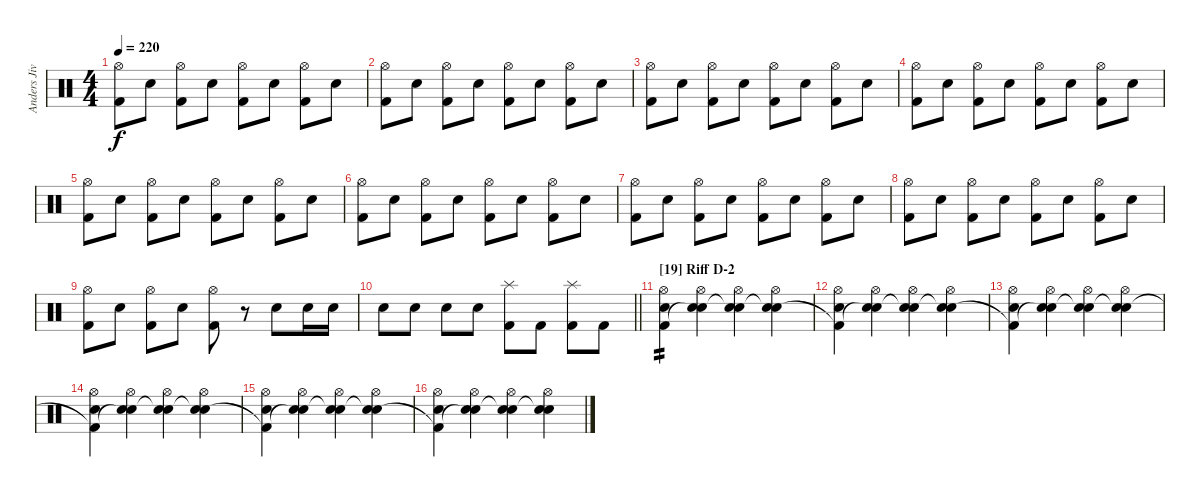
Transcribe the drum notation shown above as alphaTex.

\track ("Anders Jivarp" "Anders Jiv") {instrument percussion}
\staff {score}
\articulation defaults
\ts (4 4)
\tempo 220
\clef neutral
\ks c
("Hi-Hat (open)" "Kick (hit) 2").8{dy f} "Snare (hit) 2".8 ("Hi-Hat (open)" "Kick (hit) 2").8 "Snare (hit) 2".8 ("Hi-Hat (open)" "Kick (hit) 2").8 "Snare (hit) 2".8 ("Hi-Hat (open)" "Kick (hit) 2").8 "Snare (hit) 2".8 |
("Hi-Hat (open)" "Kick (hit) 2").8 "Snare (hit) 2".8 ("Hi-Hat (open)" "Kick (hit) 2").8 "Snare (hit) 2".8 ("Hi-Hat (open)" "Kick (hit) 2").8 "Snare (hit) 2".8 ("Hi-Hat (open)" "Kick (hit) 2").8 "Snare (hit) 2".8 |
("Hi-Hat (open)" "Kick (hit) 2").8 "Snare (hit) 2".8 ("Hi-Hat (open)" "Kick (hit) 2").8 "Snare (hit) 2".8 ("Hi-Hat (open)" "Kick (hit) 2").8 "Snare (hit) 2".8 ("Hi-Hat (open)" "Kick (hit) 2").8 "Snare (hit) 2".8 |
("Hi-Hat (open)" "Kick (hit) 2").8 "Snare (hit) 2".8 ("Hi-Hat (open)" "Kick (hit) 2").8 "Snare (hit) 2".8 ("Hi-Hat (open)" "Kick (hit) 2").8 "Snare (hit) 2".8 ("Hi-Hat (open)" "Kick (hit) 2").8 "Snare (hit) 2".8 |
("Hi-Hat (open)" "Kick (hit) 2").8 "Snare (hit) 2".8 ("Hi-Hat (open)" "Kick (hit) 2").8 "Snare (hit) 2".8 ("Hi-Hat (open)" "Kick (hit) 2").8 "Snare (hit) 2".8 ("Hi-Hat (open)" "Kick (hit) 2").8 "Snare (hit) 2".8 |
("Hi-Hat (open)" "Kick (hit) 2").8 "Snare (hit) 2".8 ("Hi-Hat (open)" "Kick (hit) 2").8 "Snare (hit) 2".8 ("Hi-Hat (open)" "Kick (hit) 2").8 "Snare (hit) 2".8 ("Hi-Hat (open)" "Kick (hit) 2").8 "Snare (hit) 2".8 |
("Hi-Hat (open)" "Kick (hit) 2").8 "Snare (hit) 2".8 ("Hi-Hat (open)" "Kick (hit) 2").8 "Snare (hit) 2".8 ("Hi-Hat (open)" "Kick (hit) 2").8 "Snare (hit) 2".8 ("Hi-Hat (open)" "Kick (hit) 2").8 "Snare (hit) 2".8 |
("Hi-Hat (open)" "Kick (hit) 2").8 "Snare (hit) 2".8 ("Hi-Hat (open)" "Kick (hit) 2").8 "Snare (hit) 2".8 ("Hi-Hat (open)" "Kick (hit) 2").8 "Snare (hit) 2".8 ("Hi-Hat (open)" "Kick (hit) 2").8 "Snare (hit) 2".8 |
("Hi-Hat (open)" "Kick (hit) 2").8 "Snare (hit) 2".8 ("Hi-Hat (open)" "Kick (hit) 2").8 "Snare (hit) 2".8 ("Hi-Hat (open)" "Kick (hit) 2").8 r.8 "Snare (hit) 2".8 "Snare (hit) 2".16 "Snare (hit) 2".16 |
\barLineRight lightlight "Snare (hit) 2".8 "Snare (hit) 2".8 "Snare (hit) 2".8 "Snare (hit) 2".8
("Splash (hit)" "Kick (hit) 2").8 "Kick (hit) 2".8 ("Splash (hit)" "Kick (hit) 2").8 "Kick (hit) 2".8 |
\section ("" "[19] Riff D-2")
("Hi-Hat (open)" "Snare (hit) 2" "Kick (hit) 2").4{tp 2} ("Hi-Hat (open)" "Snare (hit) 2" "Snare (hit)"{t}).4 ("Hi-Hat (open)" "Snare (hit) 2" "Snare (hit)"{t}).4 ("Hi-Hat (open)" "Snare (hit) 2" "Snare (hit)"{t}).4 |
("Hi-Hat (open)" "Snare (hit) 2" "Kick (hit) 2"{t}).4 ("Hi-Hat (open)" "Snare (hit) 2" "Snare (hit)"{t}).4 ("Hi-Hat (open)" "Snare (hit) 2" "Snare (hit)"{t}).4 ("Hi-Hat (open)" "Snare (hit) 2" "Snare (hit)"{t}).4 |
("Hi-Hat (open)" "Snare (hit) 2" "Kick (hit) 2"{t}).4 ("Hi-Hat (open)" "Snare (hit) 2" "Snare (hit)"{t}).4 ("Hi-Hat (open)" "Snare (hit) 2" "Snare (hit)"{t}).4 ("Hi-Hat (open)" "Snare (hit) 2" "Snare (hit)"{t}).4 |
("Hi-Hat (open)" "Snare (hit) 2" "Kick (hit) 2"{t}).4 ("Hi-Hat (open)" "Snare (hit) 2" "Snare (hit)"{t}).4 ("Hi-Hat (open)" "Snare (hit) 2" "Snare (hit)"{t}).4 ("Hi-Hat (open)" "Snare (hit) 2" "Snare (hit)"{t}).4 |
("Hi-Hat (open)" "Snare (hit) 2" "Kick (hit) 2"{t}).4 ("Hi-Hat (open)" "Snare (hit) 2" "Snare (hit)"{t}).4 ("Hi-Hat (open)" "Snare (hit) 2" "Snare (hit)"{t}).4 ("Hi-Hat (open)" "Snare (hit) 2" "Snare (hit)"{t}).4 |
("Hi-Hat (open)" "Snare (hit) 2" "Kick (hit) 2"{t}).4 ("Hi-Hat (open)" "Snare (hit) 2" "Snare (hit)"{t}).4 ("Hi-Hat (open)" "Snare (hit) 2" "Snare (hit)"{t}).4 ("Hi-Hat (open)" "Snare (hit) 2" "Snare (hit)"{t}).4
